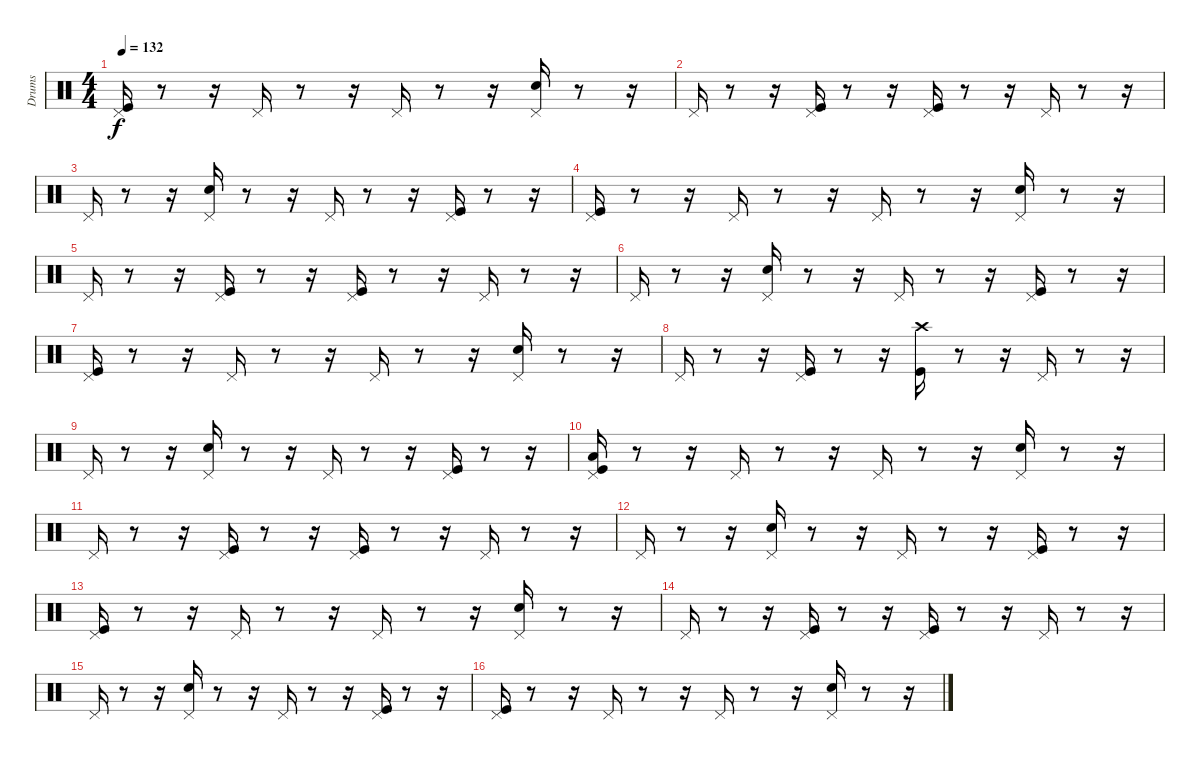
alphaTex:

\track ("Drums" "Drums") {instrument percussion}
\staff {score}
\articulation defaults
\ts (4 4)
\tempo 132
\clef neutral
\ks c
("Pedal Hi-Hat (hit)" "Kick (hit)").16{dy f} r.8 r.16 "Pedal Hi-Hat (hit)".16 r.8 r.16 "Pedal Hi-Hat (hit)".16 r.8 r.16 ("Pedal Hi-Hat (hit)" "Snare (hit) 2").16 r.8 r.16 |
"Pedal Hi-Hat (hit)".16 r.8 r.16 ("Pedal Hi-Hat (hit)" "Kick (hit)").16 r.8 r.16 ("Pedal Hi-Hat (hit)" "Kick (hit)").16 r.8 r.16 "Pedal Hi-Hat (hit)".16 r.8 r.16 |
"Pedal Hi-Hat (hit)".16 r.8 r.16 ("Pedal Hi-Hat (hit)" "Snare (hit) 2").16 r.8 r.16 "Pedal Hi-Hat (hit)".16 r.8 r.16 ("Pedal Hi-Hat (hit)" "Kick (hit)").16 r.8 r.16 |
("Pedal Hi-Hat (hit)" "Kick (hit)").16 r.8 r.16 "Pedal Hi-Hat (hit)".16 r.8 r.16 "Pedal Hi-Hat (hit)".16 r.8 r.16 ("Pedal Hi-Hat (hit)" "Snare (hit) 2").16 r.8 r.16 |
"Pedal Hi-Hat (hit)".16 r.8 r.16 ("Pedal Hi-Hat (hit)" "Kick (hit)").16 r.8 r.16 ("Pedal Hi-Hat (hit)" "Kick (hit)").16 r.8 r.16 "Pedal Hi-Hat (hit)".16 r.8 r.16 |
"Pedal Hi-Hat (hit)".16 r.8 r.16 ("Pedal Hi-Hat (hit)" "Snare (hit) 2").16 r.8 r.16 "Pedal Hi-Hat (hit)".16 r.8 r.16 ("Pedal Hi-Hat (hit)" "Kick (hit)").16 r.8 r.16 |
("Pedal Hi-Hat (hit)" "Kick (hit)").16 r.8 r.16 "Pedal Hi-Hat (hit)".16 r.8 r.16 "Pedal Hi-Hat (hit)".16 r.8 r.16 ("Pedal Hi-Hat (hit)" "Snare (hit) 2").16 r.8 r.16 |
"Pedal Hi-Hat (hit)".16 r.8 r.16 ("Pedal Hi-Hat (hit)" "Kick (hit)").16 r.8 r.16 ("Crash high (hit)" "Kick (hit)").16 r.8 r.16 "Pedal Hi-Hat (hit)".16 r.8 r.16 |
"Pedal Hi-Hat (hit)".16 r.8 r.16 ("Pedal Hi-Hat (hit)" "Snare (hit) 2").16 r.8 r.16 "Pedal Hi-Hat (hit)".16 r.8 r.16 ("Pedal Hi-Hat (hit)" "Kick (hit)").16 r.8 r.16 |
("Pedal Hi-Hat (hit)" "Low Floor Tom (hit)" "Kick (hit)").16 r.8 r.16 "Pedal Hi-Hat (hit)".16 r.8 r.16 "Pedal Hi-Hat (hit)".16 r.8 r.16 ("Pedal Hi-Hat (hit)" "Snare (hit) 2").16 r.8 r.16 |
"Pedal Hi-Hat (hit)".16 r.8 r.16 ("Pedal Hi-Hat (hit)" "Kick (hit)").16 r.8 r.16 ("Pedal Hi-Hat (hit)" "Kick (hit)").16 r.8 r.16 "Pedal Hi-Hat (hit)".16 r.8 r.16 |
"Pedal Hi-Hat (hit)".16 r.8 r.16 ("Pedal Hi-Hat (hit)" "Snare (hit) 2").16 r.8 r.16 "Pedal Hi-Hat (hit)".16 r.8 r.16 ("Pedal Hi-Hat (hit)" "Kick (hit)").16 r.8 r.16 |
("Pedal Hi-Hat (hit)" "Kick (hit)").16 r.8 r.16 "Pedal Hi-Hat (hit)".16 r.8 r.16 "Pedal Hi-Hat (hit)".16 r.8 r.16 ("Pedal Hi-Hat (hit)" "Snare (hit) 2").16 r.8 r.16 |
"Pedal Hi-Hat (hit)".16 r.8 r.16 ("Pedal Hi-Hat (hit)" "Kick (hit)").16 r.8 r.16 ("Pedal Hi-Hat (hit)" "Kick (hit)").16 r.8 r.16 "Pedal Hi-Hat (hit)".16 r.8 r.16 |
"Pedal Hi-Hat (hit)".16 r.8 r.16 ("Pedal Hi-Hat (hit)" "Snare (hit) 2").16 r.8 r.16 "Pedal Hi-Hat (hit)".16 r.8 r.16 ("Pedal Hi-Hat (hit)" "Kick (hit)").16 r.8 r.16 |
("Pedal Hi-Hat (hit)" "Kick (hit)").16 r.8 r.16 "Pedal Hi-Hat (hit)".16 r.8 r.16 "Pedal Hi-Hat (hit)".16 r.8 r.16 ("Pedal Hi-Hat (hit)" "Snare (hit) 2").16 r.8 r.16
